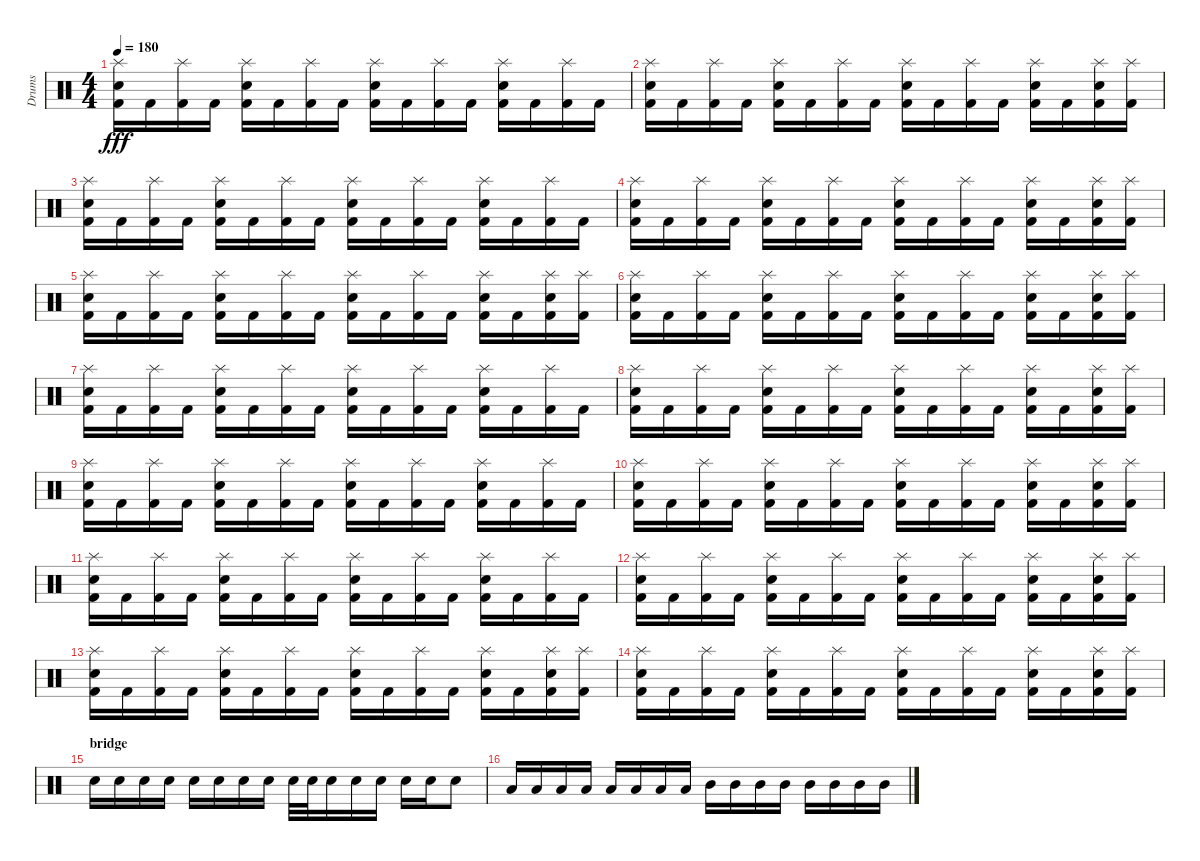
\track ("Drums" "Drums") {instrument percussion}
\staff {score}
\articulation defaults
\ts (4 4)
\tempo 180
\clef neutral
\ks c
("Kick (hit) 2" "Electric Snare (hit)" "Splash (hit)").16{dy fff} "Kick (hit) 2".16 ("Kick (hit) 2" "Splash (hit)").16 "Kick (hit) 2".16 ("Kick (hit) 2" "Electric Snare (hit)" "Splash (hit)").16 "Kick (hit) 2".16 ("Kick (hit) 2" "Splash (hit)").16 "Kick (hit) 2".16 ("Kick (hit) 2" "Electric Snare (hit)" "Splash (hit)").16 "Kick (hit) 2".16 ("Kick (hit) 2" "Splash (hit)").16 "Kick (hit) 2".16 ("Kick (hit) 2" "Electric Snare (hit)" "Splash (hit)").16 "Kick (hit) 2".16 ("Kick (hit) 2" "Splash (hit)").16 "Kick (hit) 2".16 |
("Kick (hit) 2" "Electric Snare (hit)" "Splash (hit)").16 "Kick (hit) 2".16 ("Kick (hit) 2" "Splash (hit)").16 "Kick (hit) 2".16 ("Kick (hit) 2" "Electric Snare (hit)" "Splash (hit)").16 "Kick (hit) 2".16 ("Kick (hit) 2" "Splash (hit)").16 "Kick (hit) 2".16 ("Kick (hit) 2" "Electric Snare (hit)" "Splash (hit)").16 "Kick (hit) 2".16 ("Kick (hit) 2" "Splash (hit)").16 "Kick (hit) 2".16 ("Kick (hit) 2" "Electric Snare (hit)" "Splash (hit)").16 "Kick (hit) 2".16 ("Kick (hit) 2" "Electric Snare (hit)" "Splash (hit)").16 ("Kick (hit) 2" "Splash (hit)").16 |
("Kick (hit) 2" "Electric Snare (hit)" "Splash (hit)").16 "Kick (hit) 2".16 ("Kick (hit) 2" "Splash (hit)").16 "Kick (hit) 2".16 ("Kick (hit) 2" "Electric Snare (hit)" "Splash (hit)").16 "Kick (hit) 2".16 ("Kick (hit) 2" "Splash (hit)").16 "Kick (hit) 2".16 ("Kick (hit) 2" "Electric Snare (hit)" "Splash (hit)").16 "Kick (hit) 2".16 ("Kick (hit) 2" "Splash (hit)").16 "Kick (hit) 2".16 ("Kick (hit) 2" "Electric Snare (hit)" "Splash (hit)").16 "Kick (hit) 2".16 ("Kick (hit) 2" "Splash (hit)").16 "Kick (hit) 2".16 |
("Kick (hit) 2" "Electric Snare (hit)" "Splash (hit)").16 "Kick (hit) 2".16 ("Kick (hit) 2" "Splash (hit)").16 "Kick (hit) 2".16 ("Kick (hit) 2" "Electric Snare (hit)" "Splash (hit)").16 "Kick (hit) 2".16 ("Kick (hit) 2" "Splash (hit)").16 "Kick (hit) 2".16 ("Kick (hit) 2" "Electric Snare (hit)" "Splash (hit)").16 "Kick (hit) 2".16 ("Kick (hit) 2" "Splash (hit)").16 "Kick (hit) 2".16 ("Kick (hit) 2" "Electric Snare (hit)" "Splash (hit)").16 "Kick (hit) 2".16 ("Kick (hit) 2" "Electric Snare (hit)" "Splash (hit)").16 ("Kick (hit) 2" "Splash (hit)").16 |
("Kick (hit) 2" "Electric Snare (hit)" "Splash (hit)").16 "Kick (hit) 2".16 ("Kick (hit) 2" "Splash (hit)").16 "Kick (hit) 2".16 ("Kick (hit) 2" "Electric Snare (hit)" "Splash (hit)").16 "Kick (hit) 2".16 ("Kick (hit) 2" "Splash (hit)").16 "Kick (hit) 2".16 ("Kick (hit) 2" "Electric Snare (hit)" "Splash (hit)").16 "Kick (hit) 2".16 ("Kick (hit) 2" "Splash (hit)").16 "Kick (hit) 2".16 ("Kick (hit) 2" "Electric Snare (hit)" "Splash (hit)").16 "Kick (hit) 2".16 ("Kick (hit) 2" "Electric Snare (hit)" "Splash (hit)").16 ("Kick (hit) 2" "Splash (hit)").16 |
("Kick (hit) 2" "Electric Snare (hit)" "Splash (hit)").16 "Kick (hit) 2".16 ("Kick (hit) 2" "Splash (hit)").16 "Kick (hit) 2".16 ("Kick (hit) 2" "Electric Snare (hit)" "Splash (hit)").16 "Kick (hit) 2".16 ("Kick (hit) 2" "Splash (hit)").16 "Kick (hit) 2".16 ("Kick (hit) 2" "Electric Snare (hit)" "Splash (hit)").16 "Kick (hit) 2".16 ("Kick (hit) 2" "Splash (hit)").16 "Kick (hit) 2".16 ("Kick (hit) 2" "Electric Snare (hit)" "Splash (hit)").16 "Kick (hit) 2".16 ("Kick (hit) 2" "Electric Snare (hit)" "Splash (hit)").16 ("Kick (hit) 2" "Splash (hit)").16 |
("Kick (hit) 2" "Electric Snare (hit)" "Splash (hit)").16 "Kick (hit) 2".16 ("Kick (hit) 2" "Splash (hit)").16 "Kick (hit) 2".16 ("Kick (hit) 2" "Electric Snare (hit)" "Splash (hit)").16 "Kick (hit) 2".16 ("Kick (hit) 2" "Splash (hit)").16 "Kick (hit) 2".16 ("Kick (hit) 2" "Electric Snare (hit)" "Splash (hit)").16 "Kick (hit) 2".16 ("Kick (hit) 2" "Splash (hit)").16 "Kick (hit) 2".16 ("Kick (hit) 2" "Electric Snare (hit)" "Splash (hit)").16 "Kick (hit) 2".16 ("Kick (hit) 2" "Splash (hit)").16 "Kick (hit) 2".16 |
("Kick (hit) 2" "Electric Snare (hit)" "Splash (hit)").16 "Kick (hit) 2".16 ("Kick (hit) 2" "Splash (hit)").16 "Kick (hit) 2".16 ("Kick (hit) 2" "Electric Snare (hit)" "Splash (hit)").16 "Kick (hit) 2".16 ("Kick (hit) 2" "Splash (hit)").16 "Kick (hit) 2".16 ("Kick (hit) 2" "Electric Snare (hit)" "Splash (hit)").16 "Kick (hit) 2".16 ("Kick (hit) 2" "Splash (hit)").16 "Kick (hit) 2".16 ("Kick (hit) 2" "Electric Snare (hit)" "Splash (hit)").16 "Kick (hit) 2".16 ("Kick (hit) 2" "Electric Snare (hit)" "Splash (hit)").16 ("Kick (hit) 2" "Splash (hit)").16 |
("Kick (hit) 2" "Electric Snare (hit)" "Splash (hit)").16 "Kick (hit) 2".16 ("Kick (hit) 2" "Splash (hit)").16 "Kick (hit) 2".16 ("Kick (hit) 2" "Electric Snare (hit)" "Splash (hit)").16 "Kick (hit) 2".16 ("Kick (hit) 2" "Splash (hit)").16 "Kick (hit) 2".16 ("Kick (hit) 2" "Electric Snare (hit)" "Splash (hit)").16 "Kick (hit) 2".16 ("Kick (hit) 2" "Splash (hit)").16 "Kick (hit) 2".16 ("Kick (hit) 2" "Electric Snare (hit)" "Splash (hit)").16 "Kick (hit) 2".16 ("Kick (hit) 2" "Splash (hit)").16 "Kick (hit) 2".16 |
("Kick (hit) 2" "Electric Snare (hit)" "Splash (hit)").16 "Kick (hit) 2".16 ("Kick (hit) 2" "Splash (hit)").16 "Kick (hit) 2".16 ("Kick (hit) 2" "Electric Snare (hit)" "Splash (hit)").16 "Kick (hit) 2".16 ("Kick (hit) 2" "Splash (hit)").16 "Kick (hit) 2".16 ("Kick (hit) 2" "Electric Snare (hit)" "Splash (hit)").16 "Kick (hit) 2".16 ("Kick (hit) 2" "Splash (hit)").16 "Kick (hit) 2".16 ("Kick (hit) 2" "Electric Snare (hit)" "Splash (hit)").16 "Kick (hit) 2".16 ("Kick (hit) 2" "Electric Snare (hit)" "Splash (hit)").16 ("Kick (hit) 2" "Splash (hit)").16 |
("Kick (hit) 2" "Electric Snare (hit)" "Splash (hit)").16 "Kick (hit) 2".16 ("Kick (hit) 2" "Splash (hit)").16 "Kick (hit) 2".16 ("Kick (hit) 2" "Electric Snare (hit)" "Splash (hit)").16 "Kick (hit) 2".16 ("Kick (hit) 2" "Splash (hit)").16 "Kick (hit) 2".16 ("Kick (hit) 2" "Electric Snare (hit)" "Splash (hit)").16 "Kick (hit) 2".16 ("Kick (hit) 2" "Splash (hit)").16 "Kick (hit) 2".16 ("Kick (hit) 2" "Electric Snare (hit)" "Splash (hit)").16 "Kick (hit) 2".16 ("Kick (hit) 2" "Splash (hit)").16 "Kick (hit) 2".16 |
("Kick (hit) 2" "Electric Snare (hit)" "Splash (hit)").16 "Kick (hit) 2".16 ("Kick (hit) 2" "Splash (hit)").16 "Kick (hit) 2".16 ("Kick (hit) 2" "Electric Snare (hit)" "Splash (hit)").16 "Kick (hit) 2".16 ("Kick (hit) 2" "Splash (hit)").16 "Kick (hit) 2".16 ("Kick (hit) 2" "Electric Snare (hit)" "Splash (hit)").16 "Kick (hit) 2".16 ("Kick (hit) 2" "Splash (hit)").16 "Kick (hit) 2".16 ("Kick (hit) 2" "Electric Snare (hit)" "Splash (hit)").16 "Kick (hit) 2".16 ("Kick (hit) 2" "Electric Snare (hit)" "Splash (hit)").16 ("Kick (hit) 2" "Splash (hit)").16 |
("Kick (hit) 2" "Electric Snare (hit)" "Splash (hit)").16 "Kick (hit) 2".16 ("Kick (hit) 2" "Splash (hit)").16 "Kick (hit) 2".16 ("Kick (hit) 2" "Electric Snare (hit)" "Splash (hit)").16 "Kick (hit) 2".16 ("Kick (hit) 2" "Splash (hit)").16 "Kick (hit) 2".16 ("Kick (hit) 2" "Electric Snare (hit)" "Splash (hit)").16 "Kick (hit) 2".16 ("Kick (hit) 2" "Splash (hit)").16 "Kick (hit) 2".16 ("Kick (hit) 2" "Electric Snare (hit)" "Splash (hit)").16 "Kick (hit) 2".16 ("Kick (hit) 2" "Electric Snare (hit)" "Splash (hit)").16 ("Kick (hit) 2" "Splash (hit)").16 |
("Kick (hit) 2" "Electric Snare (hit)" "Splash (hit)").16 "Kick (hit) 2".16 ("Kick (hit) 2" "Splash (hit)").16 "Kick (hit) 2".16 ("Kick (hit) 2" "Electric Snare (hit)" "Splash (hit)").16 "Kick (hit) 2".16 ("Kick (hit) 2" "Splash (hit)").16 "Kick (hit) 2".16 ("Kick (hit) 2" "Electric Snare (hit)" "Splash (hit)").16 "Kick (hit) 2".16 ("Kick (hit) 2" "Splash (hit)").16 "Kick (hit) 2".16 ("Kick (hit) 2" "Electric Snare (hit)" "Splash (hit)").16 "Kick (hit) 2".16 ("Kick (hit) 2" "Electric Snare (hit)" "Splash (hit)").16 ("Kick (hit) 2" "Splash (hit)").16 |
\section ("" "bridge")
"Electric Snare (hit)".16 "Electric Snare (hit)".16 "Electric Snare (hit)".16 "Electric Snare (hit)".16 "Electric Snare (hit)".16 "Electric Snare (hit)".16 "Electric Snare (hit)".16 "Electric Snare (hit)".16 "Snare (hit) 2".32 "Snare (hit) 2".32 "Snare (hit) 2".16 "Snare (hit) 2".16 "Snare (hit) 2".16 "Snare (hit) 2".16 "Snare (hit) 2".16 "Snare (hit) 2".8 |
"Low Tom (hit)".16 "Low Tom (hit)".16 "Low Tom (hit)".16 "Low Tom (hit)".16 "Low Tom (hit)".16 "Low Tom (hit)".16 "Low Tom (hit)".16 "Low Tom (hit)".16 "Mid Tom (hit)".16 "Mid Tom (hit)".16 "Mid Tom (hit)".16 "Mid Tom (hit)".16 "Mid Tom (hit)".16 "Mid Tom (hit)".16 "Mid Tom (hit)".16 "Mid Tom (hit)".16
